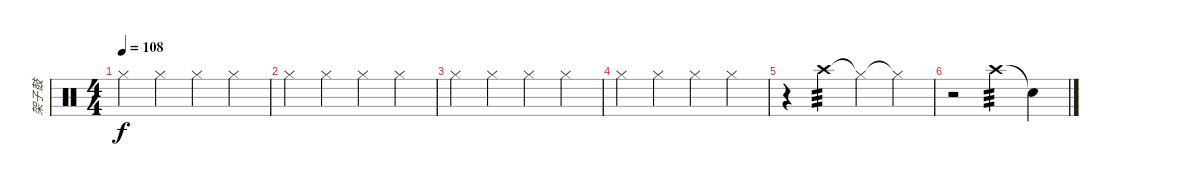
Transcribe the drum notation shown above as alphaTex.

\track ("架子鼓" "架子鼓") {instrument percussion}
\staff {score}
\articulation defaults
\ts (4 4)
\tempo 108
\clef neutral
\ks c "Hi-Hat (closed)".4{dy f} "Hi-Hat (closed)".4 "Hi-Hat (closed)".4 "Hi-Hat (closed)".4
|
"Hi-Hat (closed)".4 "Hi-Hat (closed)".4 "Hi-Hat (closed)".4 "Hi-Hat (closed)".4 |
"Hi-Hat (closed)".4 "Hi-Hat (closed)".4 "Hi-Hat (closed)".4 "Hi-Hat (closed)".4 |
"Hi-Hat (closed)".4 "Hi-Hat (closed)".4 "Hi-Hat (closed)".4 "Hi-Hat (closed)".4 |
r.4 "Crash high (hit)".4{tp 3} "Hi-Hat (closed)"{t}.4 "Hi-Hat (closed)"{t}.4 |
r.2 "Crash high (hit)".4{tp 3} "Snare (hit)"{t}.4
